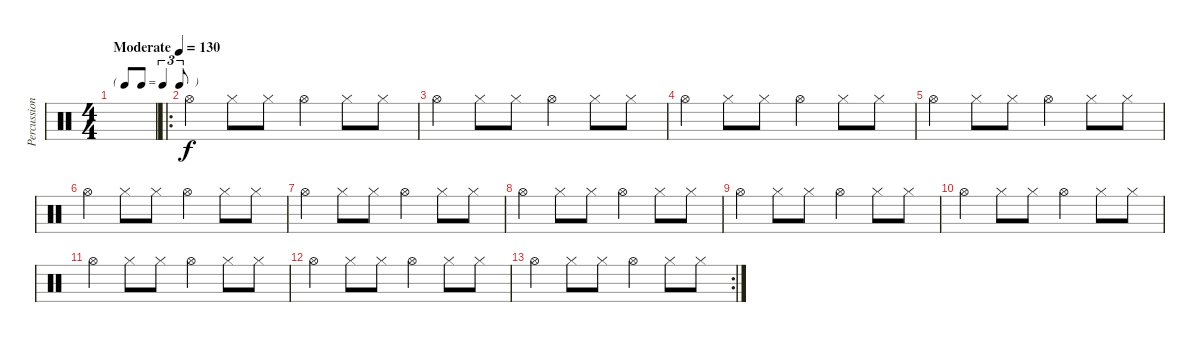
\track ("Percussions" "Percussion") {instrument percussion}
\staff {score}
\articulation defaults
\ts (4 4)
\tf triplet8th
\tempo (130 "Moderate")
\clef neutral
\ks c
|
\ro "Hi-Hat (open)".4 "Hi-Hat (closed)".8 "Hi-Hat (closed)".8 "Hi-Hat (open)".4 "Hi-Hat (closed)".8 "Hi-Hat (closed)".8
|
"Hi-Hat (open)".4 "Hi-Hat (closed)".8 "Hi-Hat (closed)".8 "Hi-Hat (open)".4 "Hi-Hat (closed)".8 "Hi-Hat (closed)".8 |
"Hi-Hat (open)".4 "Hi-Hat (closed)".8 "Hi-Hat (closed)".8 "Hi-Hat (open)".4 "Hi-Hat (closed)".8 "Hi-Hat (closed)".8 |
"Hi-Hat (open)".4 "Hi-Hat (closed)".8 "Hi-Hat (closed)".8 "Hi-Hat (open)".4 "Hi-Hat (closed)".8 "Hi-Hat (closed)".8 |
"Hi-Hat (open)".4 "Hi-Hat (closed)".8 "Hi-Hat (closed)".8 "Hi-Hat (open)".4 "Hi-Hat (closed)".8 "Hi-Hat (closed)".8 |
"Hi-Hat (open)".4 "Hi-Hat (closed)".8 "Hi-Hat (closed)".8 "Hi-Hat (open)".4 "Hi-Hat (closed)".8 "Hi-Hat (closed)".8 |
"Hi-Hat (open)".4 "Hi-Hat (closed)".8 "Hi-Hat (closed)".8 "Hi-Hat (open)".4 "Hi-Hat (closed)".8 "Hi-Hat (closed)".8 |
"Hi-Hat (open)".4 "Hi-Hat (closed)".8 "Hi-Hat (closed)".8 "Hi-Hat (open)".4 "Hi-Hat (closed)".8 "Hi-Hat (closed)".8 |
"Hi-Hat (open)".4 "Hi-Hat (closed)".8 "Hi-Hat (closed)".8 "Hi-Hat (open)".4 "Hi-Hat (closed)".8 "Hi-Hat (closed)".8 |
"Hi-Hat (open)".4 "Hi-Hat (closed)".8 "Hi-Hat (closed)".8 "Hi-Hat (open)".4 "Hi-Hat (closed)".8 "Hi-Hat (closed)".8 |
"Hi-Hat (open)".4 "Hi-Hat (closed)".8 "Hi-Hat (closed)".8 "Hi-Hat (open)".4 "Hi-Hat (closed)".8 "Hi-Hat (closed)".8 |
\rc 2 "Hi-Hat (open)".4 "Hi-Hat (closed)".8 "Hi-Hat (closed)".8 "Hi-Hat (open)".4 "Hi-Hat (closed)".8 "Hi-Hat (closed)".8
